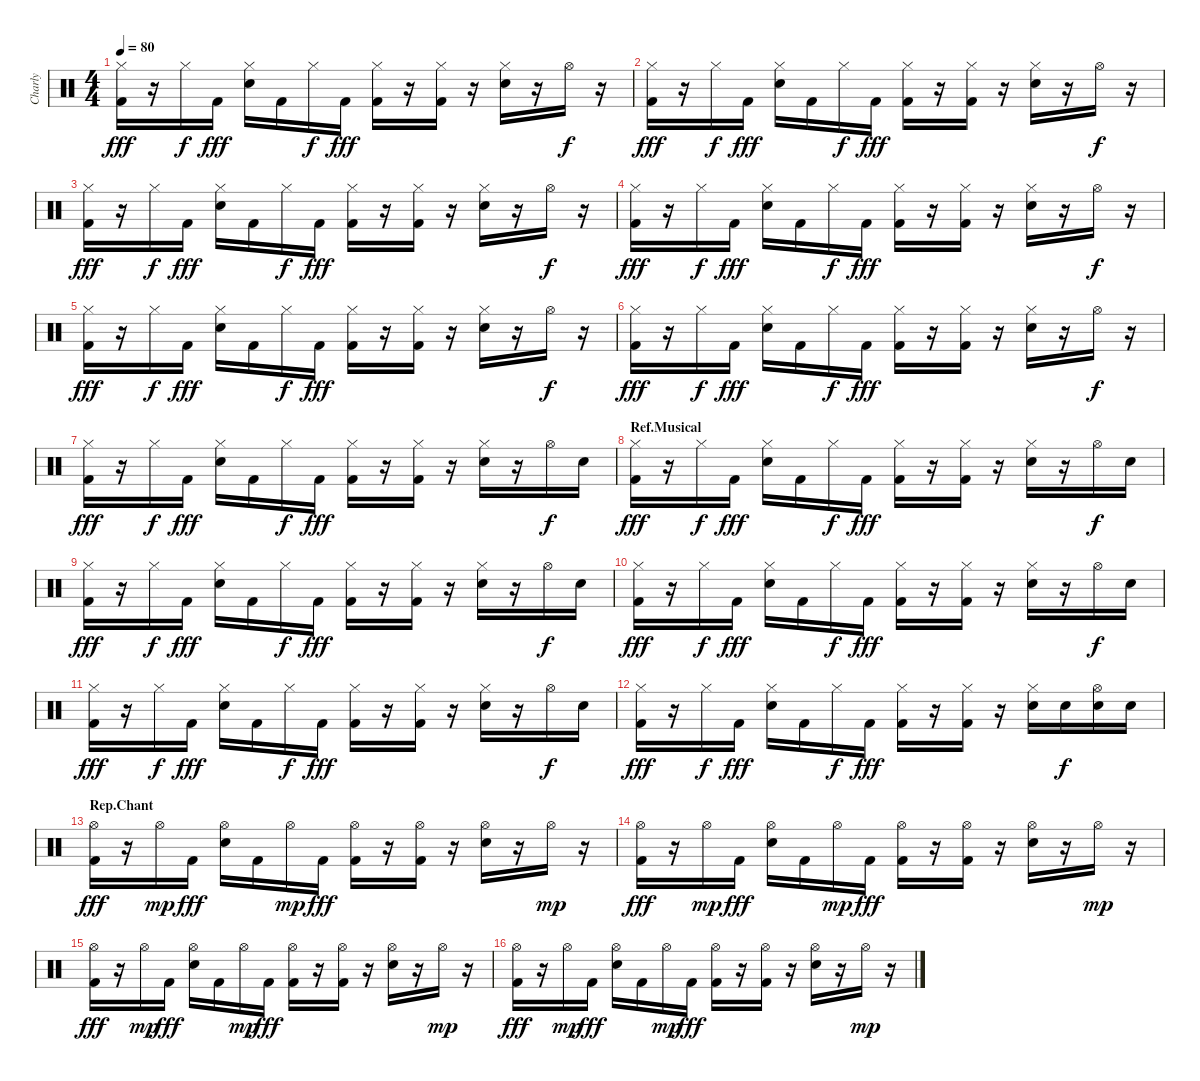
\track ("Charly" "Charly") {instrument percussion}
\staff {score}
\articulation defaults
\ts (4 4)
\tempo 80
\clef neutral
\ks c
("Hi-Hat (closed)" "Kick (hit) 2").16{dy fff} r.16 "Hi-Hat (closed)".16{dy f} "Kick (hit) 2".16{dy fff} ("Hi-Hat (closed)" "Snare (hit) 2").16 "Kick (hit) 2".16 "Hi-Hat (closed)".16{dy f} "Kick (hit) 2".16{dy fff} ("Hi-Hat (closed)" "Kick (hit) 2").16 r.16 ("Hi-Hat (closed)" "Kick (hit) 2").16 r.16 ("Hi-Hat (closed)" "Snare (hit) 2").16 r.16 "Hi-Hat (open)".16{dy f} r.16 |
("Hi-Hat (closed)" "Kick (hit) 2").16{dy fff} r.16 "Hi-Hat (closed)".16{dy f} "Kick (hit) 2".16{dy fff} ("Hi-Hat (closed)" "Snare (hit) 2").16 "Kick (hit) 2".16 "Hi-Hat (closed)".16{dy f} "Kick (hit) 2".16{dy fff} ("Hi-Hat (closed)" "Kick (hit) 2").16 r.16 ("Hi-Hat (closed)" "Kick (hit) 2").16 r.16 ("Hi-Hat (closed)" "Snare (hit) 2").16 r.16 "Hi-Hat (open)".16{dy f} r.16 |
("Hi-Hat (closed)" "Kick (hit) 2").16{dy fff} r.16 "Hi-Hat (closed)".16{dy f} "Kick (hit) 2".16{dy fff} ("Hi-Hat (closed)" "Snare (hit) 2").16 "Kick (hit) 2".16 "Hi-Hat (closed)".16{dy f} "Kick (hit) 2".16{dy fff} ("Hi-Hat (closed)" "Kick (hit) 2").16 r.16 ("Hi-Hat (closed)" "Kick (hit) 2").16 r.16 ("Hi-Hat (closed)" "Snare (hit) 2").16 r.16 "Hi-Hat (open)".16{dy f} r.16 |
("Hi-Hat (closed)" "Kick (hit) 2").16{dy fff} r.16 "Hi-Hat (closed)".16{dy f} "Kick (hit) 2".16{dy fff} ("Hi-Hat (closed)" "Snare (hit) 2").16 "Kick (hit) 2".16 "Hi-Hat (closed)".16{dy f} "Kick (hit) 2".16{dy fff} ("Hi-Hat (closed)" "Kick (hit) 2").16 r.16 ("Hi-Hat (closed)" "Kick (hit) 2").16 r.16 ("Hi-Hat (closed)" "Snare (hit) 2").16 r.16 "Hi-Hat (open)".16{dy f} r.16 |
("Hi-Hat (closed)" "Kick (hit) 2").16{dy fff} r.16 "Hi-Hat (closed)".16{dy f} "Kick (hit) 2".16{dy fff} ("Hi-Hat (closed)" "Snare (hit) 2").16 "Kick (hit) 2".16 "Hi-Hat (closed)".16{dy f} "Kick (hit) 2".16{dy fff} ("Hi-Hat (closed)" "Kick (hit) 2").16 r.16 ("Hi-Hat (closed)" "Kick (hit) 2").16 r.16 ("Hi-Hat (closed)" "Snare (hit) 2").16 r.16 "Hi-Hat (open)".16{dy f} r.16 |
("Hi-Hat (closed)" "Kick (hit) 2").16{dy fff} r.16 "Hi-Hat (closed)".16{dy f} "Kick (hit) 2".16{dy fff} ("Hi-Hat (closed)" "Snare (hit) 2").16 "Kick (hit) 2".16 "Hi-Hat (closed)".16{dy f} "Kick (hit) 2".16{dy fff} ("Hi-Hat (closed)" "Kick (hit) 2").16 r.16 ("Hi-Hat (closed)" "Kick (hit) 2").16 r.16 ("Hi-Hat (closed)" "Snare (hit) 2").16 r.16 "Hi-Hat (open)".16{dy f} r.16 |
("Hi-Hat (closed)" "Kick (hit) 2").16{dy fff} r.16 "Hi-Hat (closed)".16{dy f} "Kick (hit) 2".16{dy fff} ("Hi-Hat (closed)" "Snare (hit) 2").16 "Kick (hit) 2".16 "Hi-Hat (closed)".16{dy f} "Kick (hit) 2".16{dy fff} ("Hi-Hat (closed)" "Kick (hit) 2").16 r.16 ("Hi-Hat (closed)" "Kick (hit) 2").16 r.16 ("Hi-Hat (closed)" "Snare (hit) 2").16 r.16 "Hi-Hat (open)".16{dy f} "Snare (hit) 2".16 |
\section ("" "Ref.Musical")
("Hi-Hat (closed)" "Kick (hit) 2").16{dy fff} r.16 "Hi-Hat (closed)".16{dy f} "Kick (hit) 2".16{dy fff} ("Hi-Hat (closed)" "Snare (hit) 2").16 "Kick (hit) 2".16 "Hi-Hat (closed)".16{dy f} "Kick (hit) 2".16{dy fff} ("Hi-Hat (closed)" "Kick (hit) 2").16 r.16 ("Hi-Hat (closed)" "Kick (hit) 2").16 r.16 ("Hi-Hat (closed)" "Snare (hit) 2").16 r.16 "Hi-Hat (open)".16{dy f} "Snare (hit) 2".16 |
("Hi-Hat (closed)" "Kick (hit) 2").16{dy fff} r.16 "Hi-Hat (closed)".16{dy f} "Kick (hit) 2".16{dy fff} ("Hi-Hat (closed)" "Snare (hit) 2").16 "Kick (hit) 2".16 "Hi-Hat (closed)".16{dy f} "Kick (hit) 2".16{dy fff} ("Hi-Hat (closed)" "Kick (hit) 2").16 r.16 ("Hi-Hat (closed)" "Kick (hit) 2").16 r.16 ("Hi-Hat (closed)" "Snare (hit) 2").16 r.16 "Hi-Hat (open)".16{dy f} "Snare (hit) 2".16 |
("Hi-Hat (closed)" "Kick (hit) 2").16{dy fff} r.16 "Hi-Hat (closed)".16{dy f} "Kick (hit) 2".16{dy fff} ("Hi-Hat (closed)" "Snare (hit) 2").16 "Kick (hit) 2".16 "Hi-Hat (closed)".16{dy f} "Kick (hit) 2".16{dy fff} ("Hi-Hat (closed)" "Kick (hit) 2").16 r.16 ("Hi-Hat (closed)" "Kick (hit) 2").16 r.16 ("Hi-Hat (closed)" "Snare (hit) 2").16 r.16 "Hi-Hat (open)".16{dy f} "Snare (hit) 2".16 |
("Hi-Hat (closed)" "Kick (hit) 2").16{dy fff} r.16 "Hi-Hat (closed)".16{dy f} "Kick (hit) 2".16{dy fff} ("Hi-Hat (closed)" "Snare (hit) 2").16 "Kick (hit) 2".16 "Hi-Hat (closed)".16{dy f} "Kick (hit) 2".16{dy fff} ("Hi-Hat (closed)" "Kick (hit) 2").16 r.16 ("Hi-Hat (closed)" "Kick (hit) 2").16 r.16 ("Hi-Hat (closed)" "Snare (hit) 2").16 r.16 "Hi-Hat (open)".16{dy f} "Snare (hit) 2".16 |
("Hi-Hat (closed)" "Kick (hit) 2").16{dy fff} r.16 "Hi-Hat (closed)".16{dy f} "Kick (hit) 2".16{dy fff} ("Hi-Hat (closed)" "Snare (hit) 2").16 "Kick (hit) 2".16 "Hi-Hat (closed)".16{dy f} "Kick (hit) 2".16{dy fff} ("Hi-Hat (closed)" "Kick (hit) 2").16 r.16 ("Hi-Hat (closed)" "Kick (hit) 2").16 r.16 ("Hi-Hat (closed)" "Snare (hit) 2").16 "Snare (hit) 2".16{dy f} ("Hi-Hat (open)" "Snare (hit) 2").16 "Snare (hit) 2".16 |
\section ("" "Rep.Chant")
("Hi-Hat (open)" "Kick (hit) 2").16{dy fff} r.16 "Hi-Hat (open)".16{dy mp} "Kick (hit) 2".16{dy fff} ("Hi-Hat (open)" "Snare (hit) 2").16 "Kick (hit) 2".16 "Hi-Hat (open)".16{dy mp} "Kick (hit) 2".16{dy fff} ("Hi-Hat (open)" "Kick (hit) 2").16 r.16 ("Hi-Hat (open)" "Kick (hit) 2").16 r.16 ("Hi-Hat (open)" "Snare (hit) 2").16 r.16 "Hi-Hat (open)".16{dy mp} r.16 |
("Hi-Hat (open)" "Kick (hit) 2").16{dy fff} r.16 "Hi-Hat (open)".16{dy mp} "Kick (hit) 2".16{dy fff} ("Hi-Hat (open)" "Snare (hit) 2").16 "Kick (hit) 2".16 "Hi-Hat (open)".16{dy mp} "Kick (hit) 2".16{dy fff} ("Hi-Hat (open)" "Kick (hit) 2").16 r.16 ("Hi-Hat (open)" "Kick (hit) 2").16 r.16 ("Hi-Hat (open)" "Snare (hit) 2").16 r.16 "Hi-Hat (open)".16{dy mp} r.16 |
("Hi-Hat (open)" "Kick (hit) 2").16{dy fff} r.16 "Hi-Hat (open)".16{dy mp} "Kick (hit) 2".16{dy fff} ("Hi-Hat (open)" "Snare (hit) 2").16 "Kick (hit) 2".16 "Hi-Hat (open)".16{dy mp} "Kick (hit) 2".16{dy fff} ("Hi-Hat (open)" "Kick (hit) 2").16 r.16 ("Hi-Hat (open)" "Kick (hit) 2").16 r.16 ("Hi-Hat (open)" "Snare (hit) 2").16 r.16 "Hi-Hat (open)".16{dy mp} r.16 |
("Hi-Hat (open)" "Kick (hit) 2").16{dy fff} r.16 "Hi-Hat (open)".16{dy mp} "Kick (hit) 2".16{dy fff} ("Hi-Hat (open)" "Snare (hit) 2").16 "Kick (hit) 2".16 "Hi-Hat (open)".16{dy mp} "Kick (hit) 2".16{dy fff} ("Hi-Hat (open)" "Kick (hit) 2").16 r.16 ("Hi-Hat (open)" "Kick (hit) 2").16 r.16 ("Hi-Hat (open)" "Snare (hit) 2").16 r.16 "Hi-Hat (open)".16{dy mp} r.16
